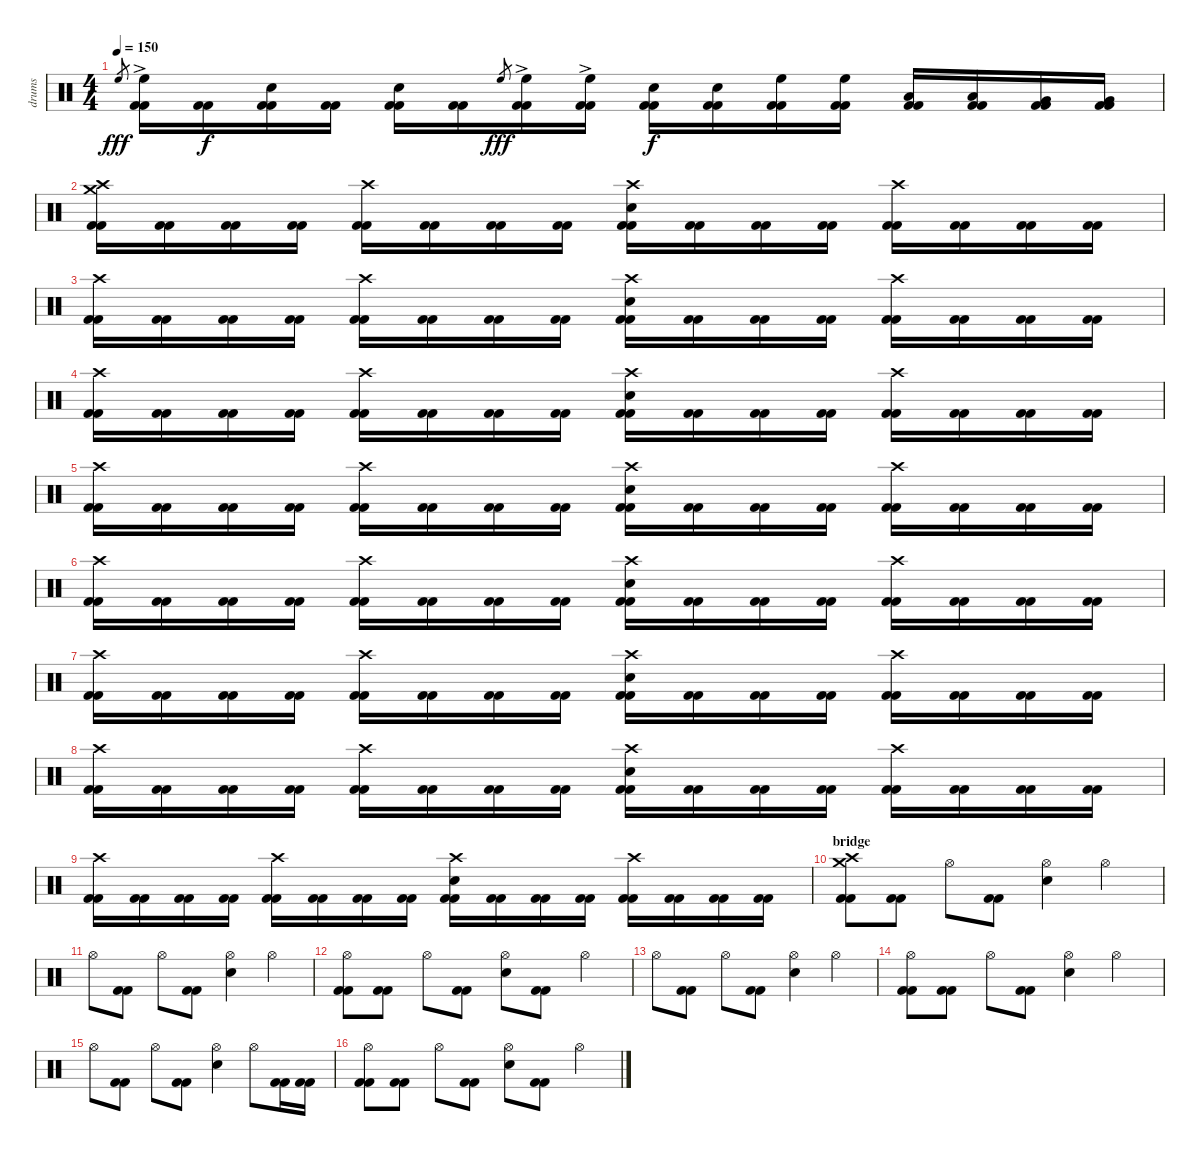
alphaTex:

\track ("drums" "drums") {instrument percussion}
\staff {score}
\articulation defaults
\ts (4 4)
\tempo 150
\clef neutral
\ks c "High Floor Tom (hit)".8{gr dy fff}
("High Floor Tom (hit)"{ac} "Kick (hit) 2" "Kick (hit) 2").16 ("Kick (hit) 2" "Kick (hit) 2").16{dy f} ("Electric Snare (hit)" "Kick (hit) 2" "Kick (hit) 2").16 ("Kick (hit) 2" "Kick (hit) 2").16 ("Electric Snare (hit)" "Kick (hit) 2" "Kick (hit) 2").16 ("Kick (hit) 2" "Kick (hit) 2").16 "High Floor Tom (hit)".8{gr dy fff} ("High Floor Tom (hit)"{ac} "Kick (hit) 2" "Kick (hit) 2").16 ("High Floor Tom (hit)"{ac} "Kick (hit) 2" "Kick (hit) 2").16 ("Electric Snare (hit)" "Kick (hit) 2" "Kick (hit) 2").16{dy f} ("Electric Snare (hit)" "Kick (hit) 2" "Kick (hit) 2").16 ("High Floor Tom (hit)" "Kick (hit) 2" "Kick (hit) 2").16 ("High Floor Tom (hit)" "Kick (hit) 2" "Kick (hit) 2").16 ("Low Tom (hit)" "Kick (hit) 2" "Kick (hit) 2").16 ("Low Tom (hit)" "Kick (hit) 2" "Kick (hit) 2").16 ("Very Low Tom (hit)" "Kick (hit) 2" "Kick (hit) 2").16 ("Very Low Tom (hit)" "Kick (hit) 2" "Kick (hit) 2").16 |
\section ("" "")
("Crash high (hit)" "Crash medium (hit)" "Kick (hit) 2" "Kick (hit) 2").16 ("Kick (hit) 2" "Kick (hit) 2").16 ("Kick (hit) 2" "Kick (hit) 2").16 ("Kick (hit) 2" "Kick (hit) 2").16 ("Crash high (hit)" "Kick (hit) 2" "Kick (hit) 2").16 ("Kick (hit) 2" "Kick (hit) 2").16 ("Kick (hit) 2" "Kick (hit) 2").16 ("Kick (hit) 2" "Kick (hit) 2").16 ("Crash high (hit)" "Electric Snare (hit)" "Kick (hit) 2" "Kick (hit) 2").16 ("Kick (hit) 2" "Kick (hit) 2").16 ("Kick (hit) 2" "Kick (hit) 2").16 ("Kick (hit) 2" "Kick (hit) 2").16 ("Crash high (hit)" "Kick (hit) 2" "Kick (hit) 2").16 ("Kick (hit) 2" "Kick (hit) 2").16 ("Kick (hit) 2" "Kick (hit) 2").16 ("Kick (hit) 2" "Kick (hit) 2").16 |
("Crash high (hit)" "Kick (hit) 2" "Kick (hit) 2").16 ("Kick (hit) 2" "Kick (hit) 2").16 ("Kick (hit) 2" "Kick (hit) 2").16 ("Kick (hit) 2" "Kick (hit) 2").16 ("Crash high (hit)" "Kick (hit) 2" "Kick (hit) 2").16 ("Kick (hit) 2" "Kick (hit) 2").16 ("Kick (hit) 2" "Kick (hit) 2").16 ("Kick (hit) 2" "Kick (hit) 2").16 ("Crash high (hit)" "Electric Snare (hit)" "Kick (hit) 2" "Kick (hit) 2").16 ("Kick (hit) 2" "Kick (hit) 2").16 ("Kick (hit) 2" "Kick (hit) 2").16 ("Kick (hit) 2" "Kick (hit) 2").16 ("Crash high (hit)" "Kick (hit) 2" "Kick (hit) 2").16 ("Kick (hit) 2" "Kick (hit) 2").16 ("Kick (hit) 2" "Kick (hit) 2").16 ("Kick (hit) 2" "Kick (hit) 2").16 |
("Crash high (hit)" "Kick (hit) 2" "Kick (hit) 2").16 ("Kick (hit) 2" "Kick (hit) 2").16 ("Kick (hit) 2" "Kick (hit) 2").16 ("Kick (hit) 2" "Kick (hit) 2").16 ("Crash high (hit)" "Kick (hit) 2" "Kick (hit) 2").16 ("Kick (hit) 2" "Kick (hit) 2").16 ("Kick (hit) 2" "Kick (hit) 2").16 ("Kick (hit) 2" "Kick (hit) 2").16 ("Crash high (hit)" "Electric Snare (hit)" "Kick (hit) 2" "Kick (hit) 2").16 ("Kick (hit) 2" "Kick (hit) 2").16 ("Kick (hit) 2" "Kick (hit) 2").16 ("Kick (hit) 2" "Kick (hit) 2").16 ("Crash high (hit)" "Kick (hit) 2" "Kick (hit) 2").16 ("Kick (hit) 2" "Kick (hit) 2").16 ("Kick (hit) 2" "Kick (hit) 2").16 ("Kick (hit) 2" "Kick (hit) 2").16 |
("Crash high (hit)" "Kick (hit) 2" "Kick (hit) 2").16 ("Kick (hit) 2" "Kick (hit) 2").16 ("Kick (hit) 2" "Kick (hit) 2").16 ("Kick (hit) 2" "Kick (hit) 2").16 ("Crash high (hit)" "Kick (hit) 2" "Kick (hit) 2").16 ("Kick (hit) 2" "Kick (hit) 2").16 ("Kick (hit) 2" "Kick (hit) 2").16 ("Kick (hit) 2" "Kick (hit) 2").16 ("Crash high (hit)" "Electric Snare (hit)" "Kick (hit) 2" "Kick (hit) 2").16 ("Kick (hit) 2" "Kick (hit) 2").16 ("Kick (hit) 2" "Kick (hit) 2").16 ("Kick (hit) 2" "Kick (hit) 2").16 ("Crash high (hit)" "Kick (hit) 2" "Kick (hit) 2").16 ("Kick (hit) 2" "Kick (hit) 2").16 ("Kick (hit) 2" "Kick (hit) 2").16 ("Kick (hit) 2" "Kick (hit) 2").16 |
("Crash high (hit)" "Kick (hit) 2" "Kick (hit) 2").16 ("Kick (hit) 2" "Kick (hit) 2").16 ("Kick (hit) 2" "Kick (hit) 2").16 ("Kick (hit) 2" "Kick (hit) 2").16 ("Crash high (hit)" "Kick (hit) 2" "Kick (hit) 2").16 ("Kick (hit) 2" "Kick (hit) 2").16 ("Kick (hit) 2" "Kick (hit) 2").16 ("Kick (hit) 2" "Kick (hit) 2").16 ("Crash high (hit)" "Electric Snare (hit)" "Kick (hit) 2" "Kick (hit) 2").16 ("Kick (hit) 2" "Kick (hit) 2").16 ("Kick (hit) 2" "Kick (hit) 2").16 ("Kick (hit) 2" "Kick (hit) 2").16 ("Crash high (hit)" "Kick (hit) 2" "Kick (hit) 2").16 ("Kick (hit) 2" "Kick (hit) 2").16 ("Kick (hit) 2" "Kick (hit) 2").16 ("Kick (hit) 2" "Kick (hit) 2").16 |
("Crash high (hit)" "Kick (hit) 2" "Kick (hit) 2").16 ("Kick (hit) 2" "Kick (hit) 2").16 ("Kick (hit) 2" "Kick (hit) 2").16 ("Kick (hit) 2" "Kick (hit) 2").16 ("Crash high (hit)" "Kick (hit) 2" "Kick (hit) 2").16 ("Kick (hit) 2" "Kick (hit) 2").16 ("Kick (hit) 2" "Kick (hit) 2").16 ("Kick (hit) 2" "Kick (hit) 2").16 ("Crash high (hit)" "Electric Snare (hit)" "Kick (hit) 2" "Kick (hit) 2").16 ("Kick (hit) 2" "Kick (hit) 2").16 ("Kick (hit) 2" "Kick (hit) 2").16 ("Kick (hit) 2" "Kick (hit) 2").16 ("Crash high (hit)" "Kick (hit) 2" "Kick (hit) 2").16 ("Kick (hit) 2" "Kick (hit) 2").16 ("Kick (hit) 2" "Kick (hit) 2").16 ("Kick (hit) 2" "Kick (hit) 2").16 |
("Crash high (hit)" "Kick (hit) 2" "Kick (hit) 2").16 ("Kick (hit) 2" "Kick (hit) 2").16 ("Kick (hit) 2" "Kick (hit) 2").16 ("Kick (hit) 2" "Kick (hit) 2").16 ("Crash high (hit)" "Kick (hit) 2" "Kick (hit) 2").16 ("Kick (hit) 2" "Kick (hit) 2").16 ("Kick (hit) 2" "Kick (hit) 2").16 ("Kick (hit) 2" "Kick (hit) 2").16 ("Crash high (hit)" "Electric Snare (hit)" "Kick (hit) 2" "Kick (hit) 2").16 ("Kick (hit) 2" "Kick (hit) 2").16 ("Kick (hit) 2" "Kick (hit) 2").16 ("Kick (hit) 2" "Kick (hit) 2").16 ("Crash high (hit)" "Kick (hit) 2" "Kick (hit) 2").16 ("Kick (hit) 2" "Kick (hit) 2").16 ("Kick (hit) 2" "Kick (hit) 2").16 ("Kick (hit) 2" "Kick (hit) 2").16 |
("Crash high (hit)" "Kick (hit) 2" "Kick (hit) 2").16 ("Kick (hit) 2" "Kick (hit) 2").16 ("Kick (hit) 2" "Kick (hit) 2").16 ("Kick (hit) 2" "Kick (hit) 2").16 ("Crash high (hit)" "Kick (hit) 2" "Kick (hit) 2").16 ("Kick (hit) 2" "Kick (hit) 2").16 ("Kick (hit) 2" "Kick (hit) 2").16 ("Kick (hit) 2" "Kick (hit) 2").16 ("Crash high (hit)" "Electric Snare (hit)" "Kick (hit) 2" "Kick (hit) 2").16 ("Kick (hit) 2" "Kick (hit) 2").16 ("Kick (hit) 2" "Kick (hit) 2").16 ("Kick (hit) 2" "Kick (hit) 2").16 ("Crash high (hit)" "Kick (hit) 2" "Kick (hit) 2").16 ("Kick (hit) 2" "Kick (hit) 2").16 ("Kick (hit) 2" "Kick (hit) 2").16 ("Kick (hit) 2" "Kick (hit) 2").16 |
\section ("" "bridge")
("Crash high (hit)" "Crash medium (hit)" "Kick (hit) 2" "Kick (hit) 2").8 ("Kick (hit) 2" "Kick (hit) 2").8 "Hi-Hat (open)".8 ("Kick (hit) 2" "Kick (hit) 2").8 ("Hi-Hat (open)" "Electric Snare (hit)").4 "Hi-Hat (open)".4 |
"Hi-Hat (open)".8 ("Kick (hit) 2" "Kick (hit) 2").8 "Hi-Hat (open)".8 ("Kick (hit) 2" "Kick (hit) 2").8 ("Hi-Hat (open)" "Electric Snare (hit)").4 "Hi-Hat (open)".4 |
("Hi-Hat (open)" "Kick (hit) 2" "Kick (hit) 2").8 ("Kick (hit) 2" "Kick (hit) 2").8 "Hi-Hat (open)".8 ("Kick (hit) 2" "Kick (hit) 2").8 ("Hi-Hat (open)" "Electric Snare (hit)").8 ("Kick (hit) 2" "Kick (hit) 2").8 "Hi-Hat (open)".4 |
"Hi-Hat (open)".8 ("Kick (hit) 2" "Kick (hit) 2").8 "Hi-Hat (open)".8 ("Kick (hit) 2" "Kick (hit) 2").8 ("Hi-Hat (open)" "Electric Snare (hit)").4 "Hi-Hat (open)".4 |
("Hi-Hat (open)" "Kick (hit) 2" "Kick (hit) 2").8 ("Kick (hit) 2" "Kick (hit) 2").8 "Hi-Hat (open)".8 ("Kick (hit) 2" "Kick (hit) 2").8 ("Hi-Hat (open)" "Electric Snare (hit)").4 "Hi-Hat (open)".4 |
"Hi-Hat (open)".8 ("Kick (hit) 2" "Kick (hit) 2").8 "Hi-Hat (open)".8 ("Kick (hit) 2" "Kick (hit) 2").8 ("Hi-Hat (open)" "Electric Snare (hit)").4 "Hi-Hat (open)".8 ("Kick (hit) 2" "Kick (hit) 2").16 ("Kick (hit) 2" "Kick (hit) 2").16 |
("Hi-Hat (open)" "Kick (hit) 2" "Kick (hit) 2").8 ("Kick (hit) 2" "Kick (hit) 2").8 "Hi-Hat (open)".8 ("Kick (hit) 2" "Kick (hit) 2").8 ("Hi-Hat (open)" "Electric Snare (hit)").8 ("Kick (hit) 2" "Kick (hit) 2").8 "Hi-Hat (open)".4
